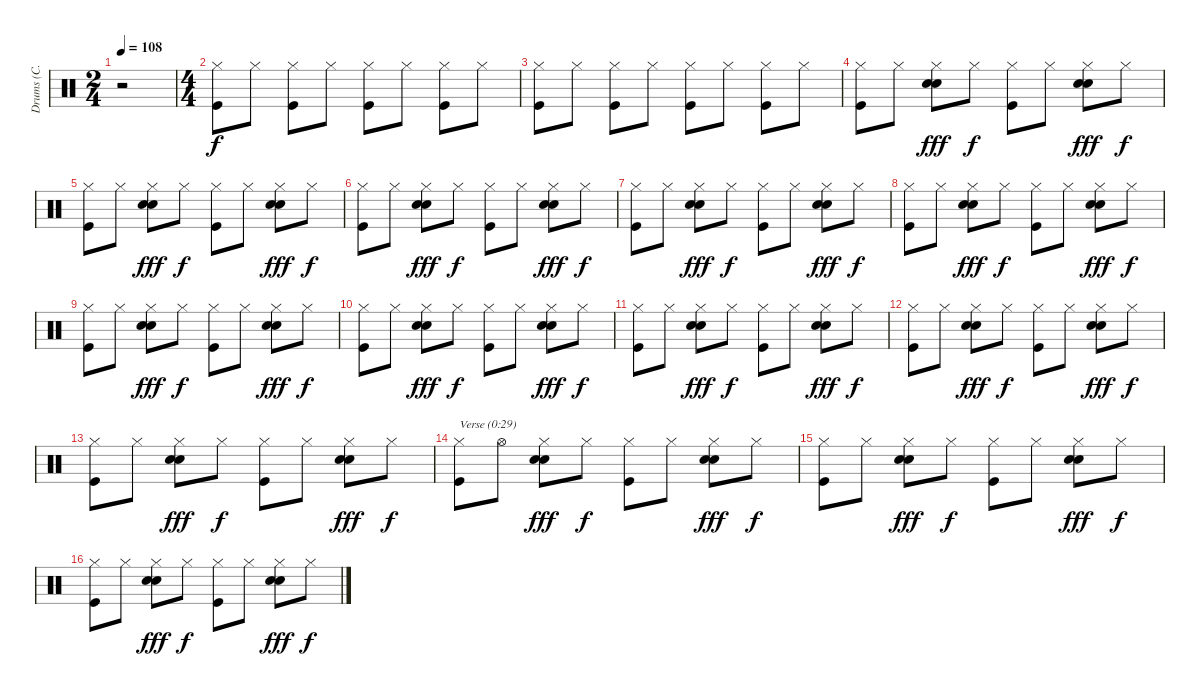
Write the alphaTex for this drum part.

\track ("Drums (C. Watts)" "Drums (C. ") {instrument percussion}
\staff {score}
\articulation defaults
\ts (2 4)
\tempo 108
\clef neutral
\ks c
r.2{dy f} |
\ts (4 4)
("Hi-Hat (closed)" "Kick (hit)").8 "Hi-Hat (closed)".8 ("Hi-Hat (closed)" "Kick (hit)").8 "Hi-Hat (closed)".8 ("Hi-Hat (closed)" "Kick (hit)").8 "Hi-Hat (closed)".8 ("Hi-Hat (closed)" "Kick (hit)").8 "Hi-Hat (closed)".8 |
("Hi-Hat (closed)" "Kick (hit)").8 "Hi-Hat (closed)".8 ("Hi-Hat (closed)" "Kick (hit)").8 "Hi-Hat (closed)".8 ("Hi-Hat (closed)" "Kick (hit)").8 "Hi-Hat (closed)".8 ("Hi-Hat (closed)" "Kick (hit)").8 "Hi-Hat (closed)".8 |
("Hi-Hat (closed)" "Kick (hit)").8 "Hi-Hat (closed)".8 ("Hi-Hat (closed)" "Snare (hit) 2" "Electric Snare (hit)").8{dy fff} "Hi-Hat (closed)".8{dy f} ("Hi-Hat (closed)" "Kick (hit)").8 "Hi-Hat (closed)".8 ("Hi-Hat (closed)" "Snare (hit) 2" "Electric Snare (hit)").8{dy fff} "Hi-Hat (closed)".8{dy f} |
("Hi-Hat (closed)" "Kick (hit)").8 "Hi-Hat (closed)".8 ("Hi-Hat (closed)" "Snare (hit) 2" "Electric Snare (hit)").8{dy fff} "Hi-Hat (closed)".8{dy f} ("Hi-Hat (closed)" "Kick (hit)").8 "Hi-Hat (closed)".8 ("Hi-Hat (closed)" "Snare (hit) 2" "Electric Snare (hit)").8{dy fff} "Hi-Hat (closed)".8{dy f} |
("Hi-Hat (closed)" "Kick (hit)").8 "Hi-Hat (closed)".8 ("Hi-Hat (closed)" "Snare (hit) 2" "Electric Snare (hit)").8{dy fff} "Hi-Hat (closed)".8{dy f} ("Hi-Hat (closed)" "Kick (hit)").8 "Hi-Hat (closed)".8 ("Hi-Hat (closed)" "Snare (hit) 2" "Electric Snare (hit)").8{dy fff} "Hi-Hat (closed)".8{dy f} |
("Hi-Hat (closed)" "Kick (hit)").8 "Hi-Hat (closed)".8 ("Hi-Hat (closed)" "Snare (hit) 2" "Electric Snare (hit)").8{dy fff} "Hi-Hat (closed)".8{dy f} ("Hi-Hat (closed)" "Kick (hit)").8 "Hi-Hat (closed)".8 ("Hi-Hat (closed)" "Snare (hit) 2" "Electric Snare (hit)").8{dy fff} "Hi-Hat (closed)".8{dy f} |
("Hi-Hat (closed)" "Kick (hit)").8 "Hi-Hat (closed)".8 ("Hi-Hat (closed)" "Snare (hit) 2" "Electric Snare (hit)").8{dy fff} "Hi-Hat (closed)".8{dy f} ("Hi-Hat (closed)" "Kick (hit)").8 "Hi-Hat (closed)".8 ("Hi-Hat (closed)" "Snare (hit) 2" "Electric Snare (hit)").8{dy fff} "Hi-Hat (closed)".8{dy f} |
("Hi-Hat (closed)" "Kick (hit)").8 "Hi-Hat (closed)".8 ("Hi-Hat (closed)" "Snare (hit) 2" "Electric Snare (hit)").8{dy fff} "Hi-Hat (closed)".8{dy f} ("Hi-Hat (closed)" "Kick (hit)").8 "Hi-Hat (closed)".8 ("Hi-Hat (closed)" "Snare (hit) 2" "Electric Snare (hit)").8{dy fff} "Hi-Hat (closed)".8{dy f} |
("Hi-Hat (closed)" "Kick (hit)").8 "Hi-Hat (closed)".8 ("Hi-Hat (closed)" "Snare (hit) 2" "Electric Snare (hit)").8{dy fff} "Hi-Hat (closed)".8{dy f} ("Hi-Hat (closed)" "Kick (hit)").8 "Hi-Hat (closed)".8 ("Hi-Hat (closed)" "Snare (hit) 2" "Electric Snare (hit)").8{dy fff} "Hi-Hat (closed)".8{dy f} |
("Hi-Hat (closed)" "Kick (hit)").8 "Hi-Hat (closed)".8 ("Hi-Hat (closed)" "Snare (hit) 2" "Electric Snare (hit)").8{dy fff} "Hi-Hat (closed)".8{dy f} ("Hi-Hat (closed)" "Kick (hit)").8 "Hi-Hat (closed)".8 ("Hi-Hat (closed)" "Snare (hit) 2" "Electric Snare (hit)").8{dy fff} "Hi-Hat (closed)".8{dy f} |
("Hi-Hat (closed)" "Kick (hit)").8 "Hi-Hat (closed)".8 ("Hi-Hat (closed)" "Snare (hit) 2" "Electric Snare (hit)").8{dy fff} "Hi-Hat (closed)".8{dy f} ("Hi-Hat (closed)" "Kick (hit)").8 "Hi-Hat (closed)".8 ("Hi-Hat (closed)" "Snare (hit) 2" "Electric Snare (hit)").8{dy fff} "Hi-Hat (closed)".8{dy f} |
("Hi-Hat (closed)" "Kick (hit)").8 "Hi-Hat (closed)".8 ("Hi-Hat (closed)" "Snare (hit) 2" "Electric Snare (hit)").8{dy fff} "Hi-Hat (closed)".8{dy f} ("Hi-Hat (closed)" "Kick (hit)").8 "Hi-Hat (closed)".8 ("Hi-Hat (closed)" "Snare (hit) 2" "Electric Snare (hit)").8{dy fff} "Hi-Hat (closed)".8{dy f} |
("Hi-Hat (closed)" "Kick (hit)").8{txt "Verse (0:29)"} "Hi-Hat (open)".8 ("Hi-Hat (closed)" "Snare (hit) 2" "Electric Snare (hit)").8{dy fff} "Hi-Hat (closed)".8{dy f} ("Hi-Hat (closed)" "Kick (hit)").8 "Hi-Hat (closed)".8 ("Hi-Hat (closed)" "Snare (hit) 2" "Electric Snare (hit)").8{dy fff} "Hi-Hat (closed)".8{dy f} |
("Hi-Hat (closed)" "Kick (hit)").8 "Hi-Hat (closed)".8 ("Hi-Hat (closed)" "Snare (hit) 2" "Electric Snare (hit)").8{dy fff} "Hi-Hat (closed)".8{dy f} ("Hi-Hat (closed)" "Kick (hit)").8 "Hi-Hat (closed)".8 ("Hi-Hat (closed)" "Snare (hit) 2" "Electric Snare (hit)").8{dy fff} "Hi-Hat (closed)".8{dy f} |
("Hi-Hat (closed)" "Kick (hit)").8 "Hi-Hat (closed)".8 ("Hi-Hat (closed)" "Snare (hit) 2" "Electric Snare (hit)").8{dy fff} "Hi-Hat (closed)".8{dy f} ("Hi-Hat (closed)" "Kick (hit)").8 "Hi-Hat (closed)".8 ("Hi-Hat (closed)" "Snare (hit) 2" "Electric Snare (hit)").8{dy fff} "Hi-Hat (closed)".8{dy f}
